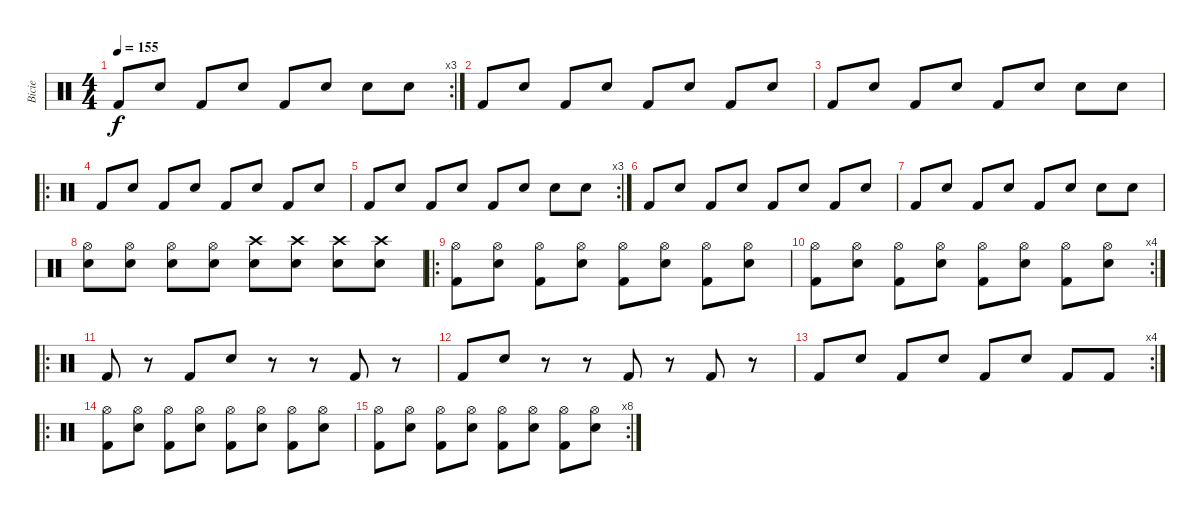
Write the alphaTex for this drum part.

\track ("Bicie" "Bicie") {instrument percussion}
\staff {score}
\articulation defaults
\rc 3
\ts (4 4)
\tempo 155
\clef neutral
\ks c "Kick (hit) 2".8{dy f} "Snare (hit) 2".8 "Kick (hit) 2".8 "Snare (hit) 2".8 "Kick (hit) 2".8 "Snare (hit) 2".8 "Snare (hit) 2".8 "Snare (hit) 2".8
|
"Kick (hit) 2".8 "Snare (hit) 2".8 "Kick (hit) 2".8 "Snare (hit) 2".8 "Kick (hit) 2".8 "Snare (hit) 2".8 "Kick (hit) 2".8 "Snare (hit) 2".8 |
"Kick (hit) 2".8 "Snare (hit) 2".8 "Kick (hit) 2".8 "Snare (hit) 2".8 "Kick (hit) 2".8 "Snare (hit) 2".8 "Snare (hit) 2".8 "Snare (hit) 2".8 |
\ro "Kick (hit) 2".8 "Snare (hit) 2".8 "Kick (hit) 2".8 "Snare (hit) 2".8 "Kick (hit) 2".8 "Snare (hit) 2".8 "Kick (hit) 2".8 "Snare (hit) 2".8
|
\rc 3 "Kick (hit) 2".8 "Snare (hit) 2".8 "Kick (hit) 2".8 "Snare (hit) 2".8 "Kick (hit) 2".8 "Snare (hit) 2".8 "Snare (hit) 2".8 "Snare (hit) 2".8
|
"Kick (hit) 2".8 "Snare (hit) 2".8 "Kick (hit) 2".8 "Snare (hit) 2".8 "Kick (hit) 2".8 "Snare (hit) 2".8 "Kick (hit) 2".8 "Snare (hit) 2".8 |
"Kick (hit) 2".8 "Snare (hit) 2".8 "Kick (hit) 2".8 "Snare (hit) 2".8 "Kick (hit) 2".8 "Snare (hit) 2".8 "Snare (hit) 2".8 "Snare (hit) 2".8 |
("Hi-Hat (open)" "Snare (hit) 2").8 ("Hi-Hat (open)" "Snare (hit) 2").8 ("Hi-Hat (open)" "Snare (hit) 2").8 ("Hi-Hat (open)" "Snare (hit) 2").8 ("Crash high (hit)" "Snare (hit) 2").8 ("Crash high (hit)" "Snare (hit) 2").8 ("Crash high (hit)" "Snare (hit) 2").8 ("Crash high (hit)" "Snare (hit) 2").8 |
\ro
("Hi-Hat (open)" "Kick (hit) 2").8 ("Hi-Hat (open)" "Snare (hit) 2").8 ("Hi-Hat (open)" "Kick (hit) 2").8 ("Hi-Hat (open)" "Snare (hit) 2").8 ("Hi-Hat (open)" "Kick (hit) 2").8 ("Hi-Hat (open)" "Snare (hit) 2").8 ("Hi-Hat (open)" "Kick (hit) 2").8 ("Hi-Hat (open)" "Snare (hit) 2").8 |
\rc 4
("Hi-Hat (open)" "Kick (hit) 2").8 ("Hi-Hat (open)" "Snare (hit) 2").8 ("Hi-Hat (open)" "Kick (hit) 2").8 ("Hi-Hat (open)" "Snare (hit) 2").8 ("Hi-Hat (open)" "Kick (hit) 2").8 ("Hi-Hat (open)" "Snare (hit) 2").8 ("Hi-Hat (open)" "Kick (hit) 2").8 ("Hi-Hat (open)" "Snare (hit) 2").8 |
\ro "Kick (hit) 2".8
r.8 "Kick (hit) 2".8 "Snare (hit) 2".8 r.8 r.8 "Kick (hit) 2".8 r.8 |
"Kick (hit) 2".8 "Snare (hit) 2".8 r.8 r.8 "Kick (hit) 2".8 r.8 "Kick (hit) 2".8 r.8 |
\rc 4 "Kick (hit) 2".8 "Snare (hit) 2".8 "Kick (hit) 2".8 "Snare (hit) 2".8 "Kick (hit) 2".8 "Snare (hit) 2".8 "Kick (hit) 2".8 "Kick (hit) 2".8
|
\ro
("Hi-Hat (open)" "Kick (hit) 2").8 ("Hi-Hat (open)" "Snare (hit) 2").8 ("Hi-Hat (open)" "Kick (hit) 2").8 ("Hi-Hat (open)" "Snare (hit) 2").8 ("Hi-Hat (open)" "Kick (hit) 2").8 ("Hi-Hat (open)" "Snare (hit) 2").8 ("Hi-Hat (open)" "Kick (hit) 2").8 ("Hi-Hat (open)" "Snare (hit) 2").8 |
\rc 8
("Hi-Hat (open)" "Kick (hit) 2").8 ("Hi-Hat (open)" "Snare (hit) 2").8 ("Hi-Hat (open)" "Kick (hit) 2").8 ("Hi-Hat (open)" "Snare (hit) 2").8 ("Hi-Hat (open)" "Kick (hit) 2").8 ("Hi-Hat (open)" "Snare (hit) 2").8 ("Hi-Hat (open)" "Kick (hit) 2").8 ("Hi-Hat (open)" "Snare (hit) 2").8
